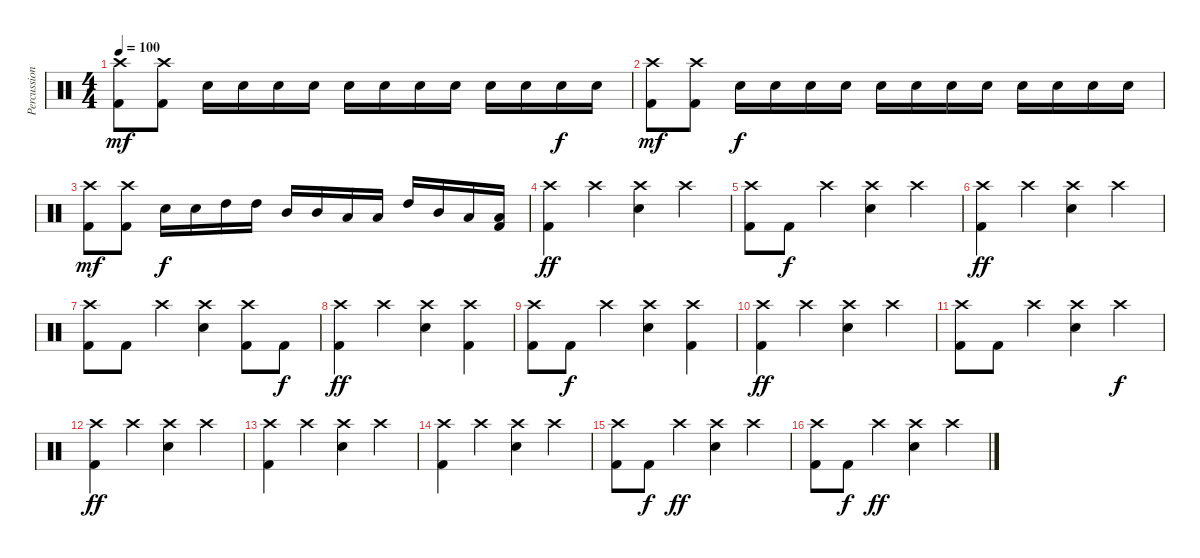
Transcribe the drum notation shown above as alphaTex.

\track ("Percussion" "Percussion") {instrument percussion}
\staff {score}
\articulation defaults
\ts (4 4)
\tempo 100
\clef neutral
\ks c
("Crash high (hit)" "Kick (hit) 2").8{dy mf} ("Crash high (hit)" "Kick (hit) 2").8 "Electric Snare (hit)".16 "Electric Snare (hit)".16 "Electric Snare (hit)".16 "Electric Snare (hit)".16 "Electric Snare (hit)".16 "Electric Snare (hit)".16 "Electric Snare (hit)".16 "Electric Snare (hit)".16 "Electric Snare (hit)".16 "Electric Snare (hit)".16 "Electric Snare (hit)".16{dy f} "Electric Snare (hit)".16 |
("Crash high (hit)" "Kick (hit) 2").8{dy mf} ("Crash high (hit)" "Kick (hit) 2").8 "Electric Snare (hit)".16{dy f} "Electric Snare (hit)".16 "Electric Snare (hit)".16 "Electric Snare (hit)".16 "Electric Snare (hit)".16 "Electric Snare (hit)".16 "Electric Snare (hit)".16 "Electric Snare (hit)".16 "Electric Snare (hit)".16 "Electric Snare (hit)".16 "Electric Snare (hit)".16 "Electric Snare (hit)".16 |
("Crash high (hit)" "Kick (hit) 2").8{dy mf} ("Crash high (hit)" "Kick (hit) 2").8 "Electric Snare (hit)".16{dy f} "Electric Snare (hit)".16 "High Tom (hit)".16 "High Tom (hit)".16 "Mid Tom (hit)".16 "Mid Tom (hit)".16 "Low Tom (hit)".16 "Low Tom (hit)".16 "High Tom (hit)".16 "Mid Tom (hit)".16 "Low Tom (hit)".16 ("Low Tom (hit)" "Kick (hit) 2").16 |
("Crash high (hit)" "Kick (hit) 2").4{dy ff} "Crash high (hit)".4 ("Crash high (hit)" "Electric Snare (hit)").4 "Crash high (hit)".4 |
("Crash high (hit)" "Kick (hit) 2").8 "Kick (hit) 2".8{dy f} "Crash high (hit)".4 ("Crash high (hit)" "Electric Snare (hit)").4 "Crash high (hit)".4 |
("Crash high (hit)" "Kick (hit) 2").4{dy ff} "Crash high (hit)".4 ("Crash high (hit)" "Electric Snare (hit)").4 "Crash high (hit)".4 |
("Crash high (hit)" "Kick (hit) 2").8 "Kick (hit) 2".8 "Crash high (hit)".4 ("Crash high (hit)" "Electric Snare (hit)").4 ("Crash high (hit)" "Kick (hit) 2").8 "Kick (hit) 2".8{dy f} |
("Crash high (hit)" "Kick (hit) 2").4{dy ff} "Crash high (hit)".4 ("Crash high (hit)" "Electric Snare (hit)").4 ("Crash high (hit)" "Kick (hit) 2").4 |
("Crash high (hit)" "Kick (hit) 2").8 "Kick (hit) 2".8{dy f} "Crash high (hit)".4 ("Crash high (hit)" "Electric Snare (hit)").4 ("Crash high (hit)" "Kick (hit) 2").4 |
("Crash high (hit)" "Kick (hit) 2").4{dy ff} "Crash high (hit)".4 ("Crash high (hit)" "Electric Snare (hit)").4 "Crash high (hit)".4 |
("Crash high (hit)" "Kick (hit) 2").8 "Kick (hit) 2".8 "Crash high (hit)".4 ("Crash high (hit)" "Electric Snare (hit)").4 "Crash high (hit)".4{dy f} |
("Crash high (hit)" "Kick (hit) 2").4{dy ff} "Crash high (hit)".4 ("Crash high (hit)" "Electric Snare (hit)").4 "Crash high (hit)".4 |
("Crash high (hit)" "Kick (hit) 2").4 "Crash high (hit)".4 ("Crash high (hit)" "Electric Snare (hit)").4 "Crash high (hit)".4 |
("Crash high (hit)" "Kick (hit) 2").4 "Crash high (hit)".4 ("Crash high (hit)" "Electric Snare (hit)").4 "Crash high (hit)".4 |
("Crash high (hit)" "Kick (hit) 2").8 "Kick (hit) 2".8{dy f} "Crash high (hit)".4{dy ff} ("Crash high (hit)" "Electric Snare (hit)").4 "Crash high (hit)".4 |
("Crash high (hit)" "Kick (hit) 2").8 "Kick (hit) 2".8{dy f} "Crash high (hit)".4{dy ff} ("Crash high (hit)" "Electric Snare (hit)").4 "Crash high (hit)".4
